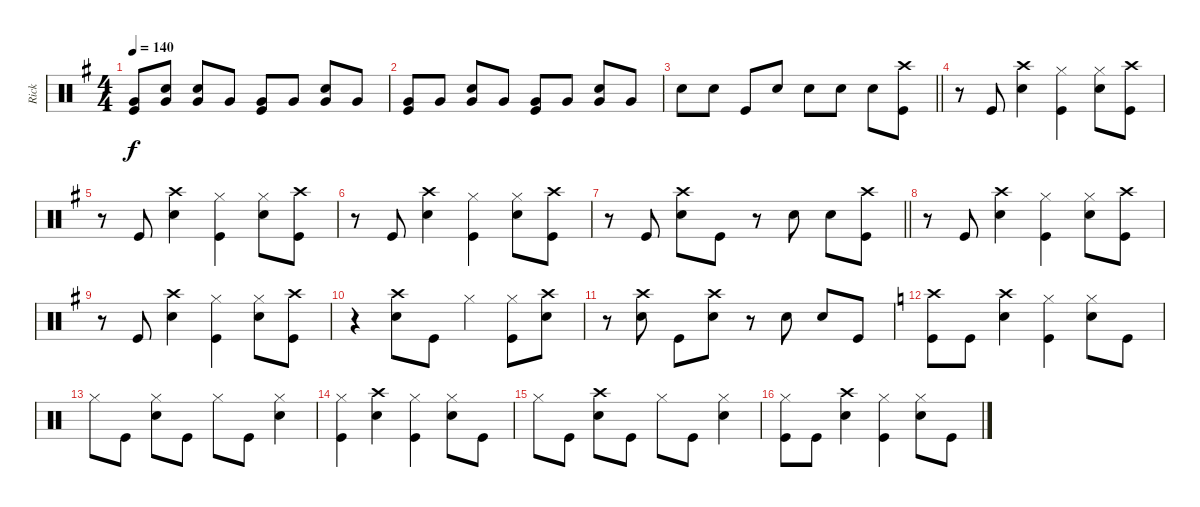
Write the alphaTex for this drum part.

\track ("Rick" "Rick") {instrument percussion}
\staff {score}
\articulation defaults
\ts (4 4)
\tempo 140
\clef neutral
\ks g
("Very Low Tom (hit)" "Kick (hit)").8{dy f} ("Snare (hit) 2" "Very Low Tom (hit)").8 ("Snare (hit) 2" "Very Low Tom (hit)").8 "Very Low Tom (hit)".8 ("Very Low Tom (hit)" "Kick (hit)").8 "Very Low Tom (hit)".8 ("Snare (hit) 2" "Very Low Tom (hit)").8 "Very Low Tom (hit)".8 |
("Very Low Tom (hit)" "Kick (hit)").8 "Very Low Tom (hit)".8 ("Snare (hit) 2" "Very Low Tom (hit)").8 "Very Low Tom (hit)".8 ("Very Low Tom (hit)" "Kick (hit)").8 "Very Low Tom (hit)".8 ("Snare (hit) 2" "Very Low Tom (hit)").8 "Very Low Tom (hit)".8 |
\barLineRight lightlight "Snare (hit) 2".8 "Snare (hit) 2".8 "Kick (hit)".8 "Snare (hit) 2".8 "Snare (hit) 2".8 "Snare (hit) 2".8 "Snare (hit) 2".8
("Crash high (hit)" "Kick (hit)").8 |
r.8 "Kick (hit)".8 ("Crash high (hit)" "Snare (hit) 2").4 ("Hi-Hat (closed)" "Kick (hit)").4 ("Hi-Hat (closed)" "Snare (hit) 2").8 ("Crash high (hit)" "Kick (hit)").8 |
r.8 "Kick (hit)".8 ("Crash high (hit)" "Snare (hit) 2").4 ("Hi-Hat (closed)" "Kick (hit)").4 ("Hi-Hat (closed)" "Snare (hit) 2").8 ("Crash high (hit)" "Kick (hit)").8 |
r.8 "Kick (hit)".8 ("Crash high (hit)" "Snare (hit) 2").4 ("Hi-Hat (closed)" "Kick (hit)").4 ("Hi-Hat (closed)" "Snare (hit) 2").8 ("Crash high (hit)" "Kick (hit)").8 |
\barLineRight lightlight
r.8 "Kick (hit)".8 ("Crash high (hit)" "Snare (hit) 2").8 "Kick (hit)".8 r.8 "Snare (hit) 2".8 "Snare (hit) 2".8 ("Crash high (hit)" "Kick (hit)").8 |
r.8 "Kick (hit)".8 ("Crash high (hit)" "Snare (hit) 2").4 ("Hi-Hat (closed)" "Kick (hit)").4 ("Hi-Hat (closed)" "Snare (hit) 2").8 ("Crash high (hit)" "Kick (hit)").8 |
r.8 "Kick (hit)".8 ("Crash high (hit)" "Snare (hit) 2").4 ("Hi-Hat (closed)" "Kick (hit)").4 ("Hi-Hat (closed)" "Snare (hit) 2").8 ("Crash high (hit)" "Kick (hit)").8 |
r.4 ("Crash high (hit)" "Snare (hit) 2").8 "Kick (hit)".8 "Hi-Hat (closed)".4 ("Hi-Hat (closed)" "Kick (hit)").8 ("Crash high (hit)" "Snare (hit) 2").8 |
r.8 ("Crash high (hit)" "Snare (hit) 2").8 "Kick (hit)".8 ("Crash high (hit)" "Snare (hit) 2").8 r.8 "Snare (hit) 2".8 "Snare (hit) 2".8 "Kick (hit)".8 |
\ks c
("Crash high (hit)" "Kick (hit)").8 "Kick (hit)".8 ("Crash high (hit)" "Snare (hit) 2").4 ("Hi-Hat (closed)" "Kick (hit)").4 ("Hi-Hat (closed)" "Snare (hit) 2").8 "Kick (hit)".8 |
"Hi-Hat (closed)".8 "Kick (hit)".8 ("Hi-Hat (closed)" "Snare (hit) 2").8 "Kick (hit)".8 "Hi-Hat (closed)".8 "Kick (hit)".8 ("Hi-Hat (closed)" "Snare (hit) 2").4 |
("Hi-Hat (closed)" "Kick (hit)").4 ("Crash high (hit)" "Snare (hit) 2").4 ("Hi-Hat (closed)" "Kick (hit)").4 ("Hi-Hat (closed)" "Snare (hit) 2").8 "Kick (hit)".8 |
"Hi-Hat (closed)".8 "Kick (hit)".8 ("Crash high (hit)" "Snare (hit) 2").8 "Kick (hit)".8 "Hi-Hat (closed)".8 "Kick (hit)".8 ("Hi-Hat (closed)" "Snare (hit) 2").4 |
("Hi-Hat (closed)" "Kick (hit)").8 "Kick (hit)".8 ("Crash high (hit)" "Snare (hit) 2").4 ("Hi-Hat (closed)" "Kick (hit)").4 ("Hi-Hat (closed)" "Snare (hit) 2").8 "Kick (hit)".8
